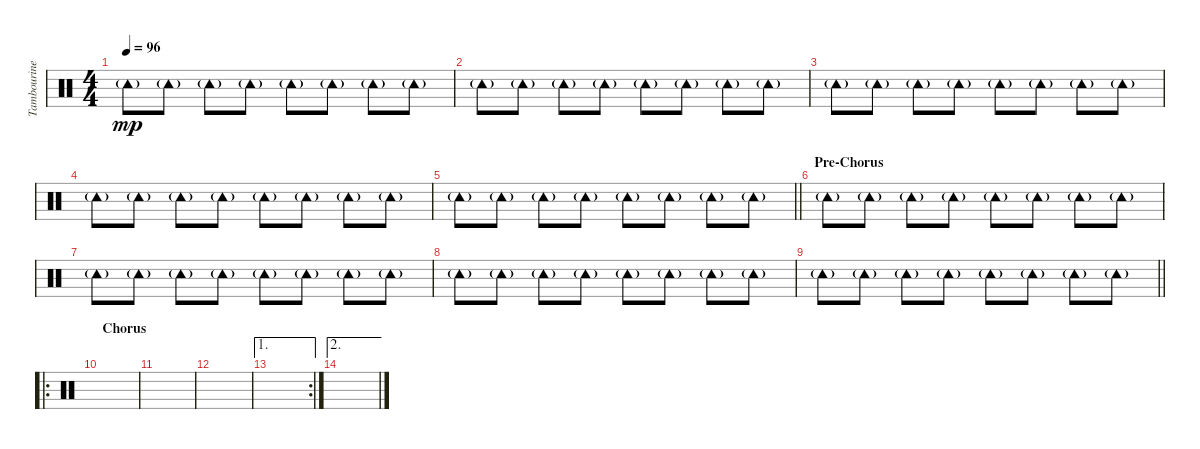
\track ("Tambourine" "Tambourine") {instrument percussion}
\staff {score}
\articulation defaults
\ts (4 4)
\tempo 96
\clef neutral
\ks c "Tambourine (hit)"{g}.8{dy mp} "Tambourine (hit)"{g}.8 "Tambourine (hit)"{g}.8 "Tambourine (hit)"{g}.8 "Tambourine (hit)"{g}.8 "Tambourine (hit)"{g}.8 "Tambourine (hit)"{g}.8 "Tambourine (hit)"{g}.8
|
"Tambourine (hit)"{g}.8 "Tambourine (hit)"{g}.8 "Tambourine (hit)"{g}.8 "Tambourine (hit)"{g}.8 "Tambourine (hit)"{g}.8 "Tambourine (hit)"{g}.8 "Tambourine (hit)"{g}.8 "Tambourine (hit)"{g}.8 |
"Tambourine (hit)"{g}.8 "Tambourine (hit)"{g}.8 "Tambourine (hit)"{g}.8 "Tambourine (hit)"{g}.8 "Tambourine (hit)"{g}.8 "Tambourine (hit)"{g}.8 "Tambourine (hit)"{g}.8 "Tambourine (hit)"{g}.8 |
"Tambourine (hit)"{g}.8 "Tambourine (hit)"{g}.8 "Tambourine (hit)"{g}.8 "Tambourine (hit)"{g}.8 "Tambourine (hit)"{g}.8 "Tambourine (hit)"{g}.8 "Tambourine (hit)"{g}.8 "Tambourine (hit)"{g}.8 |
\barLineRight lightlight "Tambourine (hit)"{g}.8 "Tambourine (hit)"{g}.8 "Tambourine (hit)"{g}.8 "Tambourine (hit)"{g}.8 "Tambourine (hit)"{g}.8 "Tambourine (hit)"{g}.8 "Tambourine (hit)"{g}.8 "Tambourine (hit)"{g}.8
|
\section ("" "Pre-Chorus")
"Tambourine (hit)"{g}.8 "Tambourine (hit)"{g}.8 "Tambourine (hit)"{g}.8 "Tambourine (hit)"{g}.8 "Tambourine (hit)"{g}.8 "Tambourine (hit)"{g}.8 "Tambourine (hit)"{g}.8 "Tambourine (hit)"{g}.8 |
"Tambourine (hit)"{g}.8 "Tambourine (hit)"{g}.8 "Tambourine (hit)"{g}.8 "Tambourine (hit)"{g}.8 "Tambourine (hit)"{g}.8 "Tambourine (hit)"{g}.8 "Tambourine (hit)"{g}.8 "Tambourine (hit)"{g}.8 |
"Tambourine (hit)"{g}.8 "Tambourine (hit)"{g}.8 "Tambourine (hit)"{g}.8 "Tambourine (hit)"{g}.8 "Tambourine (hit)"{g}.8 "Tambourine (hit)"{g}.8 "Tambourine (hit)"{g}.8 "Tambourine (hit)"{g}.8 |
\barLineRight lightlight "Tambourine (hit)"{g}.8 "Tambourine (hit)"{g}.8 "Tambourine (hit)"{g}.8 "Tambourine (hit)"{g}.8 "Tambourine (hit)"{g}.8 "Tambourine (hit)"{g}.8 "Tambourine (hit)"{g}.8 "Tambourine (hit)"{g}.8
|
\ro
\section ("" "Chorus")
|
|
|
\ae 1
\rc 2
|
\ae 2
